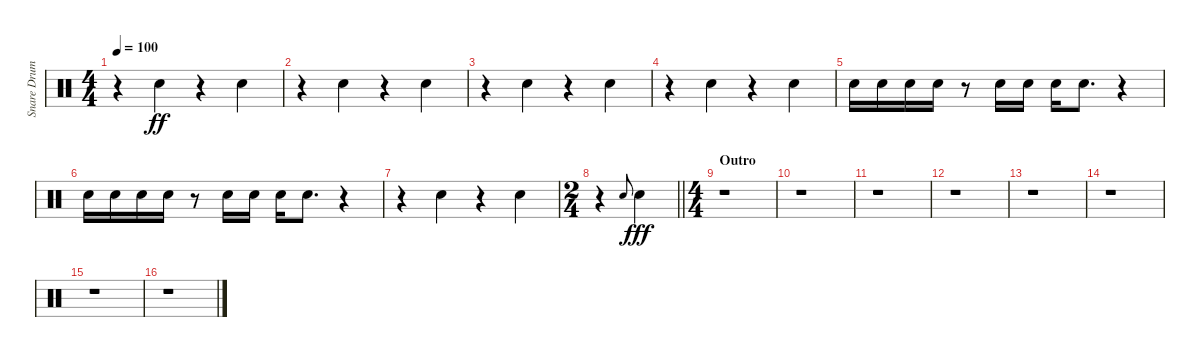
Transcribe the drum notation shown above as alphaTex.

\track ("Snare Drum" "Snare Drum") {instrument percussion}
\staff {score}
\articulation defaults
\ts (4 4)
\tempo 100
\clef neutral
\ks c
r.4{dy ff beam merge} "Electric Snare (hit)".4 r.4{beam merge} "Electric Snare (hit)".4 |
r.4{beam merge} "Electric Snare (hit)".4 r.4{beam merge} "Electric Snare (hit)".4 |
r.4{beam merge} "Electric Snare (hit)".4 r.4{beam merge} "Electric Snare (hit)".4 |
r.4{beam merge} "Electric Snare (hit)".4 r.4{beam merge} "Electric Snare (hit)".4 |
"Electric Snare (hit)".16 "Electric Snare (hit)".16 "Electric Snare (hit)".16 "Electric Snare (hit)".16 r.8 "Electric Snare (hit)".16 "Electric Snare (hit)".16 "Electric Snare (hit)".16 "Electric Snare (hit)".8{d} r.4 |
\ks aminor "Electric Snare (hit)".16 "Electric Snare (hit)".16 "Electric Snare (hit)".16 "Electric Snare (hit)".16
r.8 "Electric Snare (hit)".16 "Electric Snare (hit)".16 "Electric Snare (hit)".16 "Electric Snare (hit)".8{d} r.4 |
r.4{beam merge} "Electric Snare (hit)".4 r.4{beam merge} "Electric Snare (hit)".4 |
\ts (2 4)
\barLineRight lightlight
r.4 "Electric Snare (hit)".8{gr onbeat} "Electric Snare (hit)".4{dy fff} |
\ts (4 4)
\section ("" "Outro")
r.1 |
r.1 |
r.1 |
r.1 |
r.1 |
r.1 |
r.1 |
r.1
